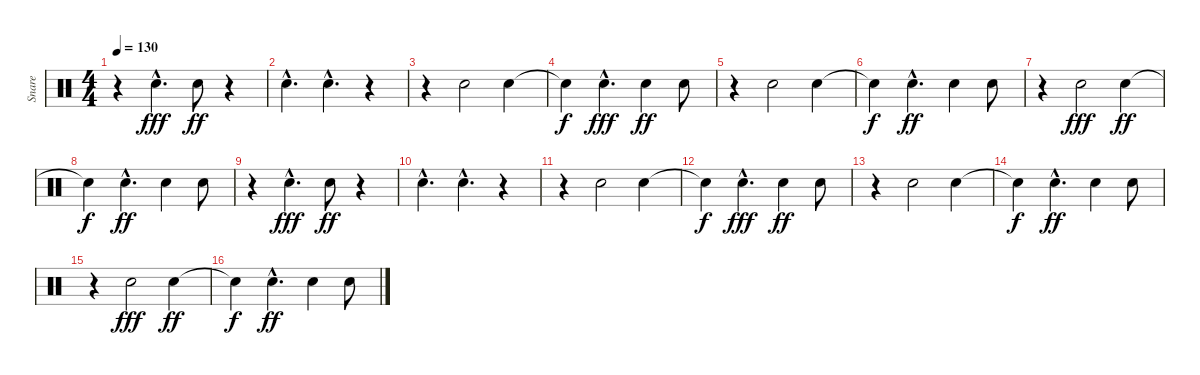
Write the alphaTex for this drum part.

\track ("Snare" "Snare") {instrument percussion}
\staff {score}
\articulation defaults
\ts (4 4)
\tempo 130
\clef neutral
\ks c
r.4{dy ff} "Snare (hit) 2"{hac}.4{d dy fff} "Snare (hit) 2".8{dy ff} r.4 |
"Snare (hit) 2"{hac}.4{d} "Snare (hit) 2"{hac}.4{d} r.4 |
r.4 "Snare (hit) 2".2 "Snare (hit) 2".4 |
"Snare (hit)"{t}.4{dy f} "Snare (hit) 2"{hac}.4{d dy fff} "Snare (hit) 2".4{dy ff} "Snare (hit) 2".8 |
r.4 "Snare (hit) 2".2 "Snare (hit) 2".4 |
"Snare (hit)"{t}.4{dy f} "Snare (hit) 2"{hac}.4{d dy ff} "Snare (hit) 2".4 "Snare (hit) 2".8 |
r.4 "Snare (hit) 2".2{dy fff} "Snare (hit) 2".4{dy ff} |
"Snare (hit)"{t}.4{dy f} "Snare (hit) 2"{hac}.4{d dy ff} "Snare (hit) 2".4 "Snare (hit) 2".8 |
r.4 "Snare (hit) 2"{hac}.4{d dy fff} "Snare (hit) 2".8{dy ff} r.4 |
"Snare (hit) 2"{hac}.4{d} "Snare (hit) 2"{hac}.4{d} r.4 |
r.4 "Snare (hit) 2".2 "Snare (hit) 2".4 |
"Snare (hit)"{t}.4{dy f} "Snare (hit) 2"{hac}.4{d dy fff} "Snare (hit) 2".4{dy ff} "Snare (hit) 2".8 |
r.4 "Snare (hit) 2".2 "Snare (hit) 2".4 |
"Snare (hit)"{t}.4{dy f} "Snare (hit) 2"{hac}.4{d dy ff} "Snare (hit) 2".4 "Snare (hit) 2".8 |
r.4 "Snare (hit) 2".2{dy fff} "Snare (hit) 2".4{dy ff} |
"Snare (hit)"{t}.4{dy f} "Snare (hit) 2"{hac}.4{d dy ff} "Snare (hit) 2".4 "Snare (hit) 2".8
